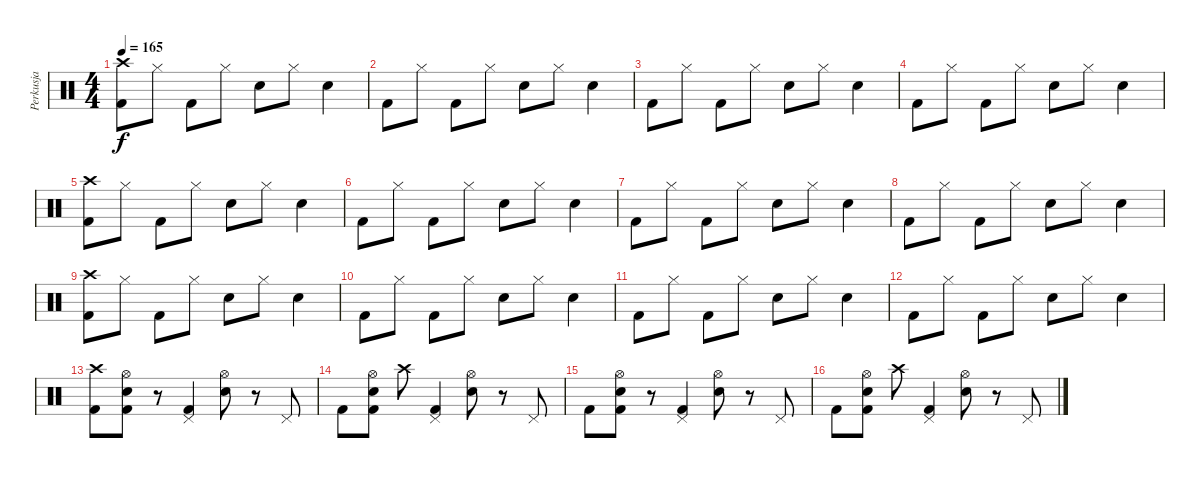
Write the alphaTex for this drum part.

\track ("Perkusja" "Perkusja") {instrument percussion}
\staff {score}
\articulation defaults
\ts (4 4)
\tempo 165
\clef neutral
\ks c
("Crash high (hit)" "Kick (hit) 2").8{dy f} "Hi-Hat (closed)".8 "Kick (hit) 2".8 "Hi-Hat (closed)".8 "Electric Snare (hit)".8 "Hi-Hat (closed)".8 "Electric Snare (hit)".4 |
"Kick (hit) 2".8 "Hi-Hat (closed)".8 "Kick (hit) 2".8 "Hi-Hat (closed)".8 "Electric Snare (hit)".8 "Hi-Hat (closed)".8 "Electric Snare (hit)".4 |
"Kick (hit) 2".8 "Hi-Hat (closed)".8 "Kick (hit) 2".8 "Hi-Hat (closed)".8 "Electric Snare (hit)".8 "Hi-Hat (closed)".8 "Electric Snare (hit)".4 |
"Kick (hit) 2".8 "Hi-Hat (closed)".8 "Kick (hit) 2".8 "Hi-Hat (closed)".8 "Electric Snare (hit)".8 "Hi-Hat (closed)".8 "Electric Snare (hit)".4 |
("Crash high (hit)" "Kick (hit) 2").8 "Hi-Hat (closed)".8 "Kick (hit) 2".8 "Hi-Hat (closed)".8 "Electric Snare (hit)".8 "Hi-Hat (closed)".8 "Electric Snare (hit)".4 |
"Kick (hit) 2".8 "Hi-Hat (closed)".8 "Kick (hit) 2".8 "Hi-Hat (closed)".8 "Electric Snare (hit)".8 "Hi-Hat (closed)".8 "Electric Snare (hit)".4 |
"Kick (hit) 2".8 "Hi-Hat (closed)".8 "Kick (hit) 2".8 "Hi-Hat (closed)".8 "Electric Snare (hit)".8 "Hi-Hat (closed)".8 "Electric Snare (hit)".4 |
"Kick (hit) 2".8 "Hi-Hat (closed)".8 "Kick (hit) 2".8 "Hi-Hat (closed)".8 "Electric Snare (hit)".8 "Hi-Hat (closed)".8 "Electric Snare (hit)".4 |
("Crash high (hit)" "Kick (hit) 2").8 "Hi-Hat (closed)".8 "Kick (hit) 2".8 "Hi-Hat (closed)".8 "Electric Snare (hit)".8 "Hi-Hat (closed)".8 "Electric Snare (hit)".4 |
"Kick (hit) 2".8 "Hi-Hat (closed)".8 "Kick (hit) 2".8 "Hi-Hat (closed)".8 "Electric Snare (hit)".8 "Hi-Hat (closed)".8 "Electric Snare (hit)".4 |
"Kick (hit) 2".8 "Hi-Hat (closed)".8 "Kick (hit) 2".8 "Hi-Hat (closed)".8 "Electric Snare (hit)".8 "Hi-Hat (closed)".8 "Electric Snare (hit)".4 |
"Kick (hit) 2".8 "Hi-Hat (closed)".8 "Kick (hit) 2".8 "Hi-Hat (closed)".8 "Electric Snare (hit)".8 "Hi-Hat (closed)".8 "Electric Snare (hit)".4 |
("Crash high (hit)" "Kick (hit) 2").8 ("Hi-Hat (open)" "Electric Snare (hit)" "Kick (hit) 2").8 r.8 ("Pedal Hi-Hat (hit)" "Kick (hit) 2").4 ("Hi-Hat (open)" "Electric Snare (hit)").8 r.8 "Pedal Hi-Hat (hit)".8 |
"Kick (hit) 2".8 ("Hi-Hat (open)" "Electric Snare (hit)" "Kick (hit) 2").8 "Crash high (hit)".8 ("Pedal Hi-Hat (hit)" "Kick (hit) 2").4 ("Hi-Hat (open)" "Electric Snare (hit)").8 r.8 "Pedal Hi-Hat (hit)".8 |
"Kick (hit) 2".8 ("Hi-Hat (open)" "Electric Snare (hit)" "Kick (hit) 2").8 r.8 ("Pedal Hi-Hat (hit)" "Kick (hit) 2").4 ("Hi-Hat (open)" "Electric Snare (hit)").8 r.8 "Pedal Hi-Hat (hit)".8 |
"Kick (hit) 2".8 ("Hi-Hat (open)" "Electric Snare (hit)" "Kick (hit) 2").8 "Crash high (hit)".8 ("Pedal Hi-Hat (hit)" "Kick (hit) 2").4 ("Hi-Hat (open)" "Electric Snare (hit)").8 r.8 "Pedal Hi-Hat (hit)".8
